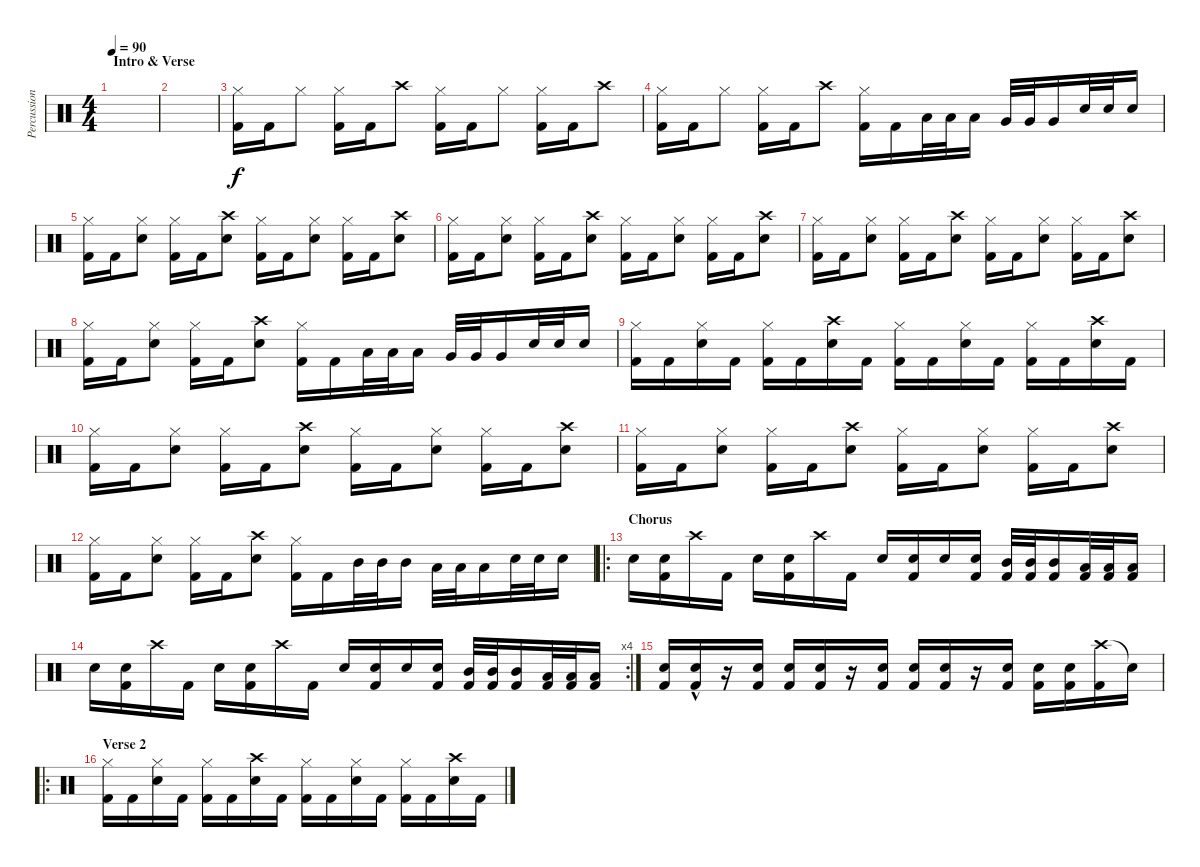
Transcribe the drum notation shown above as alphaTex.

\track ("Percussion" "Percussion") {instrument percussion}
\staff {score}
\articulation defaults
\ts (4 4)
\section ("" "Intro & Verse")
\tempo 90
\clef neutral
\ks c
|
|
("Hi-Hat (closed)" "Kick (hit) 2").16 "Kick (hit) 2".16 "Hi-Hat (closed)".8 ("Hi-Hat (closed)" "Kick (hit) 2").16 "Kick (hit) 2".16 "Crash high (hit)".8 ("Hi-Hat (closed)" "Kick (hit) 2").16 "Kick (hit) 2".16 "Hi-Hat (closed)".8 ("Hi-Hat (closed)" "Kick (hit) 2").16 "Kick (hit) 2".16 "Crash high (hit)".8 |
("Hi-Hat (closed)" "Kick (hit) 2").16 "Kick (hit) 2".16 "Hi-Hat (closed)".8 ("Hi-Hat (closed)" "Kick (hit) 2").16 "Kick (hit) 2".16 "Crash high (hit)".8 ("Hi-Hat (closed)" "Kick (hit) 2").16 "Kick (hit) 2".16 "Low Tom (hit)".32 "Low Tom (hit)".32 "Low Tom (hit)".16 "Very Low Tom (hit)".32 "Very Low Tom (hit)".32 "Very Low Tom (hit)".16 "Electric Snare (hit)".32 "Electric Snare (hit)".32 "Electric Snare (hit)".16 |
("Hi-Hat (closed)" "Kick (hit) 2").16 "Kick (hit) 2".16 ("Hi-Hat (closed)" "Electric Snare (hit)").8 ("Hi-Hat (closed)" "Kick (hit) 2").16 "Kick (hit) 2".16 ("Crash high (hit)" "Electric Snare (hit)").8 ("Hi-Hat (closed)" "Kick (hit) 2").16 "Kick (hit) 2".16 ("Hi-Hat (closed)" "Electric Snare (hit)").8 ("Hi-Hat (closed)" "Kick (hit) 2").16 "Kick (hit) 2".16 ("Crash high (hit)" "Electric Snare (hit)").8 |
("Hi-Hat (closed)" "Kick (hit) 2").16 "Kick (hit) 2".16 ("Hi-Hat (closed)" "Electric Snare (hit)").8 ("Hi-Hat (closed)" "Kick (hit) 2").16 "Kick (hit) 2".16 ("Crash high (hit)" "Electric Snare (hit)").8 ("Hi-Hat (closed)" "Kick (hit) 2").16 "Kick (hit) 2".16 ("Hi-Hat (closed)" "Electric Snare (hit)").8 ("Hi-Hat (closed)" "Kick (hit) 2").16 "Kick (hit) 2".16 ("Crash high (hit)" "Electric Snare (hit)").8 |
("Hi-Hat (closed)" "Kick (hit) 2").16 "Kick (hit) 2".16 ("Hi-Hat (closed)" "Electric Snare (hit)").8 ("Hi-Hat (closed)" "Kick (hit) 2").16 "Kick (hit) 2".16 ("Crash high (hit)" "Electric Snare (hit)").8 ("Hi-Hat (closed)" "Kick (hit) 2").16 "Kick (hit) 2".16 ("Hi-Hat (closed)" "Electric Snare (hit)").8 ("Hi-Hat (closed)" "Kick (hit) 2").16 "Kick (hit) 2".16 ("Crash high (hit)" "Electric Snare (hit)").8 |
("Hi-Hat (closed)" "Kick (hit) 2").16 "Kick (hit) 2".16 ("Hi-Hat (closed)" "Electric Snare (hit)").8 ("Hi-Hat (closed)" "Kick (hit) 2").16 "Kick (hit) 2".16 ("Crash high (hit)" "Electric Snare (hit)").8 ("Hi-Hat (closed)" "Kick (hit) 2").16 "Kick (hit) 2".16 "Low Tom (hit)".32 "Low Tom (hit)".32 "Low Tom (hit)".16 "Very Low Tom (hit)".32 "Very Low Tom (hit)".32 "Very Low Tom (hit)".16 "Electric Snare (hit)".32 "Electric Snare (hit)".32 "Electric Snare (hit)".16 |
("Hi-Hat (closed)" "Kick (hit) 2").16 "Kick (hit) 2".16 ("Hi-Hat (closed)" "Electric Snare (hit)").16 "Kick (hit) 2".16 ("Hi-Hat (closed)" "Kick (hit) 2").16 "Kick (hit) 2".16 ("Crash high (hit)" "Electric Snare (hit)").16 "Kick (hit) 2".16 ("Hi-Hat (closed)" "Kick (hit) 2").16 "Kick (hit) 2".16 ("Hi-Hat (closed)" "Electric Snare (hit)").16 "Kick (hit) 2".16 ("Hi-Hat (closed)" "Kick (hit) 2").16 "Kick (hit) 2".16 ("Crash high (hit)" "Electric Snare (hit)").16 "Kick (hit) 2".16 |
("Hi-Hat (closed)" "Kick (hit) 2").16 "Kick (hit) 2".16 ("Hi-Hat (closed)" "Electric Snare (hit)").8 ("Hi-Hat (closed)" "Kick (hit) 2").16 "Kick (hit) 2".16 ("Crash high (hit)" "Electric Snare (hit)").8 ("Hi-Hat (closed)" "Kick (hit) 2").16 "Kick (hit) 2".16 ("Hi-Hat (closed)" "Electric Snare (hit)").8 ("Hi-Hat (closed)" "Kick (hit) 2").16 "Kick (hit) 2".16 ("Crash high (hit)" "Electric Snare (hit)").8 |
("Hi-Hat (closed)" "Kick (hit) 2").16 "Kick (hit) 2".16 ("Hi-Hat (closed)" "Electric Snare (hit)").8 ("Hi-Hat (closed)" "Kick (hit) 2").16 "Kick (hit) 2".16 ("Crash high (hit)" "Electric Snare (hit)").8 ("Hi-Hat (closed)" "Kick (hit) 2").16 "Kick (hit) 2".16 ("Hi-Hat (closed)" "Electric Snare (hit)").8 ("Hi-Hat (closed)" "Kick (hit) 2").16 "Kick (hit) 2".16 ("Crash high (hit)" "Electric Snare (hit)").8 |
("Hi-Hat (closed)" "Kick (hit) 2").16 "Kick (hit) 2".16 ("Hi-Hat (closed)" "Electric Snare (hit)").8 ("Hi-Hat (closed)" "Kick (hit) 2").16 "Kick (hit) 2".16 ("Crash high (hit)" "Electric Snare (hit)").8 ("Hi-Hat (closed)" "Kick (hit) 2").16 "Kick (hit) 2".16 "Mid Tom (hit)".32 "Mid Tom (hit)".32 "Mid Tom (hit)".16 "Low Tom (hit)".32 "Low Tom (hit)".32 "Low Tom (hit)".16 "Electric Snare (hit)".32 "Electric Snare (hit)".32 "Electric Snare (hit)".16 |
\ro
\section ("" "Chorus")
"Electric Snare (hit)".16 ("Electric Snare (hit)" "Kick (hit) 2").16 "Crash high (hit)".16 "Kick (hit) 2".16 "Electric Snare (hit)".16 ("Electric Snare (hit)" "Kick (hit) 2").16 "Crash high (hit)".16 "Kick (hit) 2".16 "Electric Snare (hit)".16 ("Electric Snare (hit)" "Kick (hit) 2").16 "Electric Snare (hit)".16 ("Electric Snare (hit)" "Kick (hit) 2").16 ("Mid Tom (hit)" "Kick (hit) 2").32 ("Mid Tom (hit)" "Kick (hit) 2").32 ("Mid Tom (hit)" "Kick (hit) 2").16 ("Low Tom (hit)" "Kick (hit) 2").32 ("Low Tom (hit)" "Kick (hit) 2").32 ("Low Tom (hit)" "Kick (hit) 2").16 |
\rc 4 "Electric Snare (hit)".16
("Electric Snare (hit)" "Kick (hit) 2").16 "Crash high (hit)".16 "Kick (hit) 2".16 "Electric Snare (hit)".16 ("Electric Snare (hit)" "Kick (hit) 2").16 "Crash high (hit)".16 "Kick (hit) 2".16 "Electric Snare (hit)".16 ("Electric Snare (hit)" "Kick (hit) 2").16 "Electric Snare (hit)".16 ("Electric Snare (hit)" "Kick (hit) 2").16 ("Mid Tom (hit)" "Kick (hit) 2").32 ("Mid Tom (hit)" "Kick (hit) 2").32 ("Mid Tom (hit)" "Kick (hit) 2").16 ("Low Tom (hit)" "Kick (hit) 2").32 ("Low Tom (hit)" "Kick (hit) 2").32 ("Low Tom (hit)" "Kick (hit) 2").16 |
("Electric Snare (hit)" "Kick (hit) 2").16 ("Electric Snare (hit)"{hac} "Kick (hit) 2").16 r.16 ("Electric Snare (hit)" "Kick (hit) 2").16 ("Electric Snare (hit)" "Kick (hit) 2").16 ("Electric Snare (hit)" "Kick (hit) 2").16 r.16 ("Electric Snare (hit)" "Kick (hit) 2").16 ("Electric Snare (hit)" "Kick (hit) 2").16 ("Electric Snare (hit)" "Kick (hit) 2").16 r.16 ("Electric Snare (hit)" "Kick (hit) 2").16 ("Electric Snare (hit)" "Kick (hit) 2").16 ("Electric Snare (hit)" "Kick (hit) 2").16 ("Crash high (hit)" "Kick (hit) 2").16 "Snare (hit)"{t}.16 |
\ro
\section ("" "Verse 2")
("Hi-Hat (closed)" "Kick (hit) 2").16 "Kick (hit) 2".16 ("Hi-Hat (closed)" "Electric Snare (hit)").16 "Kick (hit) 2".16 ("Hi-Hat (closed)" "Kick (hit) 2").16 "Kick (hit) 2".16 ("Crash high (hit)" "Electric Snare (hit)").16 "Kick (hit) 2".16 ("Hi-Hat (closed)" "Kick (hit) 2").16 "Kick (hit) 2".16 ("Hi-Hat (closed)" "Electric Snare (hit)").16 "Kick (hit) 2".16 ("Hi-Hat (closed)" "Kick (hit) 2").16 "Kick (hit) 2".16 ("Crash high (hit)" "Electric Snare (hit)").16 "Kick (hit) 2".16
